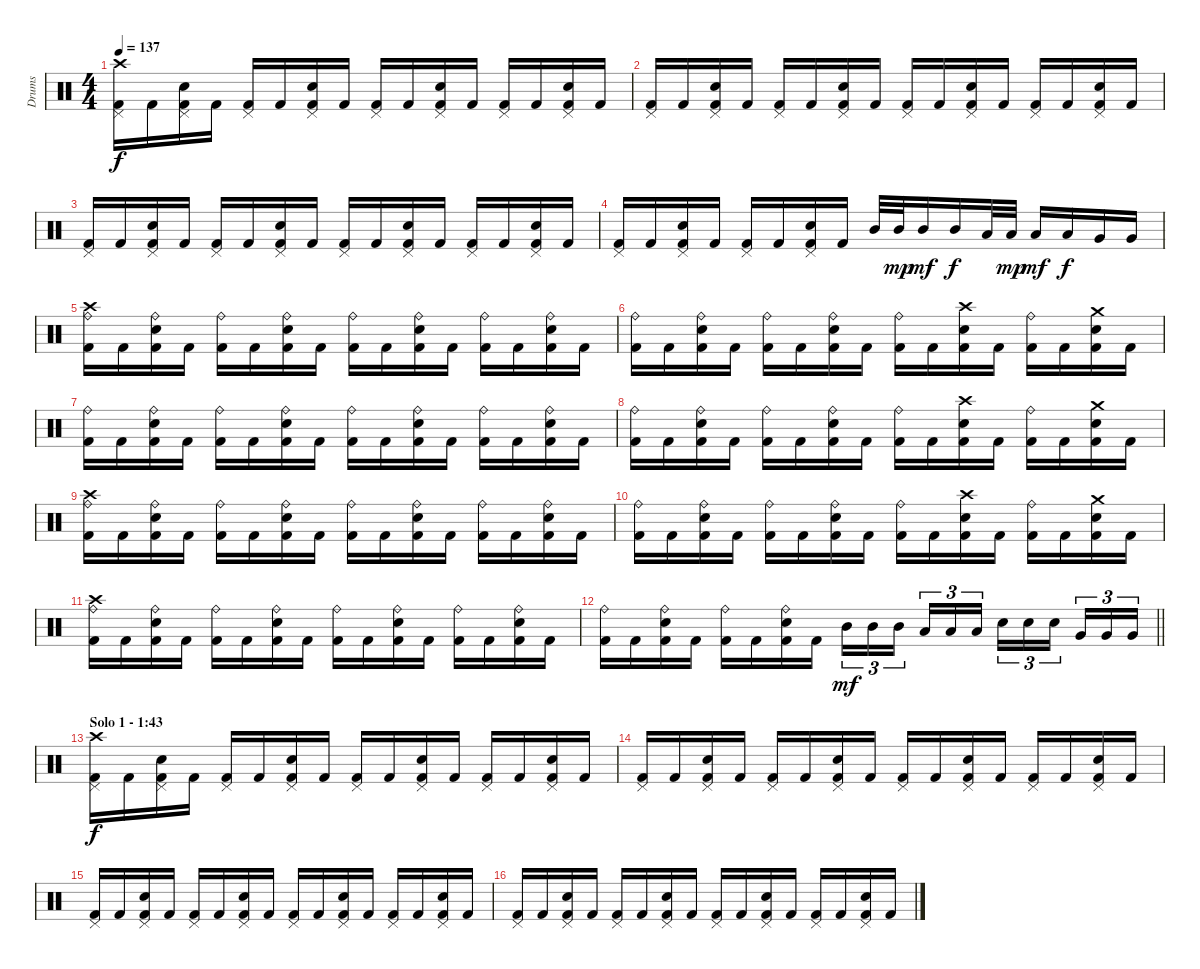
\track ("Drums" "Drums") {instrument percussion}
\staff
\articulation defaults
\ts (4 4)
\tempo 137
\clef neutral
\ks c
("Crash high (hit)" "Pedal Hi-Hat (hit)" "Kick (hit) 2").16{dy f} "Kick (hit) 2".16 ("Pedal Hi-Hat (hit)" "Snare (hit) 2" "Kick (hit) 2").16 "Kick (hit) 2".16 ("Pedal Hi-Hat (hit)" "Kick (hit) 2").16 "Kick (hit) 2".16 ("Pedal Hi-Hat (hit)" "Snare (hit) 2" "Kick (hit) 2").16 "Kick (hit) 2".16 ("Pedal Hi-Hat (hit)" "Kick (hit) 2").16 "Kick (hit) 2".16 ("Pedal Hi-Hat (hit)" "Snare (hit) 2" "Kick (hit) 2").16 "Kick (hit) 2".16 ("Pedal Hi-Hat (hit)" "Kick (hit) 2").16 "Kick (hit) 2".16 ("Pedal Hi-Hat (hit)" "Snare (hit) 2" "Kick (hit) 2").16 "Kick (hit) 2".16 |
("Pedal Hi-Hat (hit)" "Kick (hit) 2").16 "Kick (hit) 2".16 ("Pedal Hi-Hat (hit)" "Snare (hit) 2" "Kick (hit) 2").16 "Kick (hit) 2".16 ("Pedal Hi-Hat (hit)" "Kick (hit) 2").16 "Kick (hit) 2".16 ("Pedal Hi-Hat (hit)" "Snare (hit) 2" "Kick (hit) 2").16 "Kick (hit) 2".16 ("Pedal Hi-Hat (hit)" "Kick (hit) 2").16 "Kick (hit) 2".16 ("Pedal Hi-Hat (hit)" "Snare (hit) 2" "Kick (hit) 2").16 "Kick (hit) 2".16 ("Pedal Hi-Hat (hit)" "Kick (hit) 2").16 "Kick (hit) 2".16 ("Pedal Hi-Hat (hit)" "Snare (hit) 2" "Kick (hit) 2").16 "Kick (hit) 2".16 |
("Pedal Hi-Hat (hit)" "Kick (hit) 2").16 "Kick (hit) 2".16 ("Pedal Hi-Hat (hit)" "Snare (hit) 2" "Kick (hit) 2").16 "Kick (hit) 2".16 ("Pedal Hi-Hat (hit)" "Kick (hit) 2").16 "Kick (hit) 2".16 ("Pedal Hi-Hat (hit)" "Snare (hit) 2" "Kick (hit) 2").16 "Kick (hit) 2".16 ("Pedal Hi-Hat (hit)" "Kick (hit) 2").16 "Kick (hit) 2".16 ("Pedal Hi-Hat (hit)" "Snare (hit) 2" "Kick (hit) 2").16 "Kick (hit) 2".16 ("Pedal Hi-Hat (hit)" "Kick (hit) 2").16 "Kick (hit) 2".16 ("Pedal Hi-Hat (hit)" "Snare (hit) 2" "Kick (hit) 2").16 "Kick (hit) 2".16 |
("Pedal Hi-Hat (hit)" "Kick (hit) 2").16 "Kick (hit) 2".16 ("Pedal Hi-Hat (hit)" "Snare (hit) 2" "Kick (hit) 2").16 "Kick (hit) 2".16 ("Pedal Hi-Hat (hit)" "Kick (hit) 2").16 "Kick (hit) 2".16 ("Pedal Hi-Hat (hit)" "Snare (hit) 2" "Kick (hit) 2").16 "Kick (hit) 2".16 "Mid Tom (hit)".32 "Mid Tom (hit)".32{dy mp} "Mid Tom (hit)".16{dy mf} "Mid Tom (hit)".16{dy f} "Low Tom (hit)".32 "Low Tom (hit)".32{dy mp} "Low Tom (hit)".16{dy mf} "Low Tom (hit)".16{dy f} "Very Low Tom (hit)".16 "Very Low Tom (hit)".16 |
("Crash high (hit)" "Ride (bell)" "Kick (hit) 2").16 "Kick (hit) 2".16 ("Ride (bell)" "Snare (hit) 2" "Kick (hit) 2").16 "Kick (hit) 2".16 ("Ride (bell)" "Kick (hit) 2").16 "Kick (hit) 2".16 ("Ride (bell)" "Snare (hit) 2" "Kick (hit) 2").16 "Kick (hit) 2".16 ("Ride (bell)" "Kick (hit) 2").16 "Kick (hit) 2".16 ("Ride (bell)" "Snare (hit) 2" "Kick (hit) 2").16 "Kick (hit) 2".16 ("Ride (bell)" "Kick (hit) 2").16 "Kick (hit) 2".16 ("Ride (bell)" "Snare (hit) 2" "Kick (hit) 2").16 "Kick (hit) 2".16 |
("Ride (bell)" "Kick (hit) 2").16 "Kick (hit) 2".16 ("Ride (bell)" "Snare (hit) 2" "Kick (hit) 2").16 "Kick (hit) 2".16 ("Ride (bell)" "Kick (hit) 2").16 "Kick (hit) 2".16 ("Ride (bell)" "Snare (hit) 2" "Kick (hit) 2").16 "Kick (hit) 2".16 ("Ride (bell)" "Kick (hit) 2").16 "Kick (hit) 2".16 ("Crash high (hit)" "Snare (hit) 2" "Kick (hit) 2").16 "Kick (hit) 2".16 ("Ride (bell)" "Kick (hit) 2").16 "Kick (hit) 2".16 ("Crash medium (hit)" "Snare (hit) 2" "Kick (hit) 2").16 "Kick (hit) 2".16 |
("Ride (bell)" "Kick (hit) 2").16 "Kick (hit) 2".16 ("Ride (bell)" "Snare (hit) 2" "Kick (hit) 2").16 "Kick (hit) 2".16 ("Ride (bell)" "Kick (hit) 2").16 "Kick (hit) 2".16 ("Ride (bell)" "Snare (hit) 2" "Kick (hit) 2").16 "Kick (hit) 2".16 ("Ride (bell)" "Kick (hit) 2").16 "Kick (hit) 2".16 ("Ride (bell)" "Snare (hit) 2" "Kick (hit) 2").16 "Kick (hit) 2".16 ("Ride (bell)" "Kick (hit) 2").16 "Kick (hit) 2".16 ("Ride (bell)" "Snare (hit) 2" "Kick (hit) 2").16 "Kick (hit) 2".16 |
("Ride (bell)" "Kick (hit) 2").16 "Kick (hit) 2".16 ("Ride (bell)" "Snare (hit) 2" "Kick (hit) 2").16 "Kick (hit) 2".16 ("Ride (bell)" "Kick (hit) 2").16 "Kick (hit) 2".16 ("Ride (bell)" "Snare (hit) 2" "Kick (hit) 2").16 "Kick (hit) 2".16 ("Ride (bell)" "Kick (hit) 2").16 "Kick (hit) 2".16 ("Crash high (hit)" "Snare (hit) 2" "Kick (hit) 2").16 "Kick (hit) 2".16 ("Ride (bell)" "Kick (hit) 2").16 "Kick (hit) 2".16 ("Crash medium (hit)" "Snare (hit) 2" "Kick (hit) 2").16 "Kick (hit) 2".16 |
("Crash high (hit)" "Ride (bell)" "Kick (hit) 2").16 "Kick (hit) 2".16 ("Ride (bell)" "Snare (hit) 2" "Kick (hit) 2").16 "Kick (hit) 2".16 ("Ride (bell)" "Kick (hit) 2").16 "Kick (hit) 2".16 ("Ride (bell)" "Snare (hit) 2" "Kick (hit) 2").16 "Kick (hit) 2".16 ("Ride (bell)" "Kick (hit) 2").16 "Kick (hit) 2".16 ("Ride (bell)" "Snare (hit) 2" "Kick (hit) 2").16 "Kick (hit) 2".16 ("Ride (bell)" "Kick (hit) 2").16 "Kick (hit) 2".16 ("Ride (bell)" "Snare (hit) 2" "Kick (hit) 2").16 "Kick (hit) 2".16 |
("Ride (bell)" "Kick (hit) 2").16 "Kick (hit) 2".16 ("Ride (bell)" "Snare (hit) 2" "Kick (hit) 2").16 "Kick (hit) 2".16 ("Ride (bell)" "Kick (hit) 2").16 "Kick (hit) 2".16 ("Ride (bell)" "Snare (hit) 2" "Kick (hit) 2").16 "Kick (hit) 2".16 ("Ride (bell)" "Kick (hit) 2").16 "Kick (hit) 2".16 ("Crash high (hit)" "Snare (hit) 2" "Kick (hit) 2").16 "Kick (hit) 2".16 ("Ride (bell)" "Kick (hit) 2").16 "Kick (hit) 2".16 ("Crash medium (hit)" "Snare (hit) 2" "Kick (hit) 2").16 "Kick (hit) 2".16 |
("Crash high (hit)" "Ride (bell)" "Kick (hit) 2").16 "Kick (hit) 2".16 ("Ride (bell)" "Snare (hit) 2" "Kick (hit) 2").16 "Kick (hit) 2".16 ("Ride (bell)" "Kick (hit) 2").16 "Kick (hit) 2".16 ("Ride (bell)" "Snare (hit) 2" "Kick (hit) 2").16 "Kick (hit) 2".16 ("Ride (bell)" "Kick (hit) 2").16 "Kick (hit) 2".16 ("Ride (bell)" "Snare (hit) 2" "Kick (hit) 2").16 "Kick (hit) 2".16 ("Ride (bell)" "Kick (hit) 2").16 "Kick (hit) 2".16 ("Ride (bell)" "Snare (hit) 2" "Kick (hit) 2").16 "Kick (hit) 2".16 |
\barLineRight lightlight
("Ride (bell)" "Kick (hit) 2").16 "Kick (hit) 2".16 ("Ride (bell)" "Snare (hit) 2" "Kick (hit) 2").16 "Kick (hit) 2".16 ("Ride (bell)" "Kick (hit) 2").16 "Kick (hit) 2".16 ("Ride (bell)" "Snare (hit) 2" "Kick (hit) 2").16 "Kick (hit) 2".16 "Mid Tom (hit)".16{tu (3 2) dy mf} "Mid Tom (hit)".16{tu (3 2)} "Mid Tom (hit)".16{tu (3 2) beam splitsecondary} "Low Tom (hit)".16{tu (3 2)} "Low Tom (hit)".16{tu (3 2)} "Low Tom (hit)".16{tu (3 2)} "Snare (hit) 2".16{tu (3 2)} "Snare (hit) 2".16{tu (3 2)} "Snare (hit) 2".16{tu (3 2) beam splitsecondary} "Very Low Tom (hit)".16{tu (3 2)} "Very Low Tom (hit)".16{tu (3 2)} "Very Low Tom (hit)".16{tu (3 2)} |
\section ("" "Solo 1 - 1:43")
("Crash high (hit)" "Pedal Hi-Hat (hit)" "Kick (hit) 2").16{dy f} "Kick (hit) 2".16 ("Pedal Hi-Hat (hit)" "Snare (hit) 2" "Kick (hit) 2").16 "Kick (hit) 2".16 ("Pedal Hi-Hat (hit)" "Kick (hit) 2").16 "Kick (hit) 2".16 ("Pedal Hi-Hat (hit)" "Snare (hit) 2" "Kick (hit) 2").16 "Kick (hit) 2".16 ("Pedal Hi-Hat (hit)" "Kick (hit) 2").16 "Kick (hit) 2".16 ("Pedal Hi-Hat (hit)" "Snare (hit) 2" "Kick (hit) 2").16 "Kick (hit) 2".16 ("Pedal Hi-Hat (hit)" "Kick (hit) 2").16 "Kick (hit) 2".16 ("Pedal Hi-Hat (hit)" "Snare (hit) 2" "Kick (hit) 2").16 "Kick (hit) 2".16 |
("Pedal Hi-Hat (hit)" "Kick (hit) 2").16 "Kick (hit) 2".16 ("Pedal Hi-Hat (hit)" "Snare (hit) 2" "Kick (hit) 2").16 "Kick (hit) 2".16 ("Pedal Hi-Hat (hit)" "Kick (hit) 2").16 "Kick (hit) 2".16 ("Pedal Hi-Hat (hit)" "Snare (hit) 2" "Kick (hit) 2").16 "Kick (hit) 2".16 ("Pedal Hi-Hat (hit)" "Kick (hit) 2").16 "Kick (hit) 2".16 ("Pedal Hi-Hat (hit)" "Snare (hit) 2" "Kick (hit) 2").16 "Kick (hit) 2".16 ("Pedal Hi-Hat (hit)" "Kick (hit) 2").16 "Kick (hit) 2".16 ("Pedal Hi-Hat (hit)" "Snare (hit) 2" "Kick (hit) 2").16 "Kick (hit) 2".16 |
("Pedal Hi-Hat (hit)" "Kick (hit) 2").16 "Kick (hit) 2".16 ("Pedal Hi-Hat (hit)" "Snare (hit) 2" "Kick (hit) 2").16 "Kick (hit) 2".16 ("Pedal Hi-Hat (hit)" "Kick (hit) 2").16 "Kick (hit) 2".16 ("Pedal Hi-Hat (hit)" "Snare (hit) 2" "Kick (hit) 2").16 "Kick (hit) 2".16 ("Pedal Hi-Hat (hit)" "Kick (hit) 2").16 "Kick (hit) 2".16 ("Pedal Hi-Hat (hit)" "Snare (hit) 2" "Kick (hit) 2").16 "Kick (hit) 2".16 ("Pedal Hi-Hat (hit)" "Kick (hit) 2").16 "Kick (hit) 2".16 ("Pedal Hi-Hat (hit)" "Snare (hit) 2" "Kick (hit) 2").16 "Kick (hit) 2".16 |
("Pedal Hi-Hat (hit)" "Kick (hit) 2").16 "Kick (hit) 2".16 ("Pedal Hi-Hat (hit)" "Snare (hit) 2" "Kick (hit) 2").16 "Kick (hit) 2".16 ("Pedal Hi-Hat (hit)" "Kick (hit) 2").16 "Kick (hit) 2".16 ("Pedal Hi-Hat (hit)" "Snare (hit) 2" "Kick (hit) 2").16 "Kick (hit) 2".16 ("Pedal Hi-Hat (hit)" "Kick (hit) 2").16 "Kick (hit) 2".16 ("Pedal Hi-Hat (hit)" "Snare (hit) 2" "Kick (hit) 2").16 "Kick (hit) 2".16 ("Pedal Hi-Hat (hit)" "Kick (hit) 2").16 "Kick (hit) 2".16 ("Pedal Hi-Hat (hit)" "Snare (hit) 2" "Kick (hit) 2").16 "Kick (hit) 2".16
